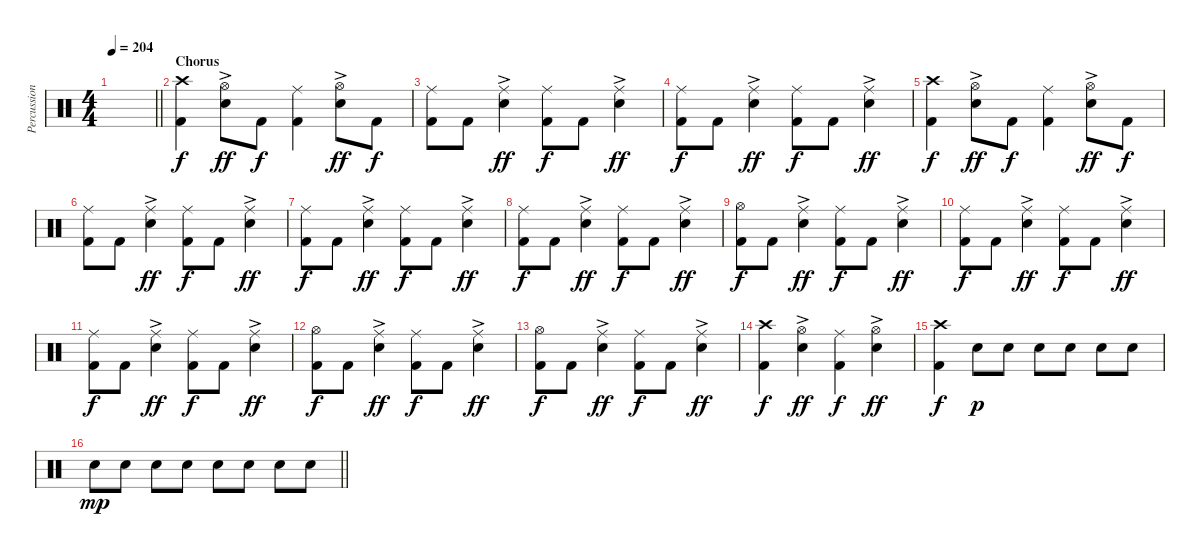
\track ("Percussion" "Percussion") {instrument percussion}
\staff {score}
\articulation defaults
\ts (4 4)
\tempo 204
\clef neutral
\barLineRight lightlight
\ks c
|
\section ("" "Chorus")
("Crash high (hit)" "Kick (hit) 2").4{dy f} ("Hi-Hat (open)" "Electric Snare (hit)"{ac}).8{dy ff} "Kick (hit) 2".8{dy f} ("Ride (middle)" "Kick (hit) 2").4 ("Hi-Hat (open)" "Electric Snare (hit)"{ac}).8{dy ff} "Kick (hit) 2".8{dy f} |
("Ride (middle)" "Kick (hit) 2").8 "Kick (hit) 2".8 ("Ride (middle)" "Electric Snare (hit)"{ac}).4{dy ff} ("Ride (middle)" "Kick (hit) 2").8{dy f} "Kick (hit) 2".8 ("Ride (middle)" "Electric Snare (hit)"{ac}).4{dy ff} |
("Ride (middle)" "Kick (hit) 2").8{dy f} "Kick (hit) 2".8 ("Ride (middle)" "Electric Snare (hit)"{ac}).4{dy ff} ("Ride (middle)" "Kick (hit) 2").8{dy f} "Kick (hit) 2".8 ("Ride (middle)" "Electric Snare (hit)"{ac}).4{dy ff} |
("Crash high (hit)" "Kick (hit) 2").4{dy f} ("Hi-Hat (open)" "Electric Snare (hit)"{ac}).8{dy ff} "Kick (hit) 2".8{dy f} ("Ride (middle)" "Kick (hit) 2").4 ("Hi-Hat (open)" "Electric Snare (hit)"{ac}).8{dy ff} "Kick (hit) 2".8{dy f} |
("Ride (middle)" "Kick (hit) 2").8 "Kick (hit) 2".8 ("Ride (middle)" "Electric Snare (hit)"{ac}).4{dy ff} ("Ride (middle)" "Kick (hit) 2").8{dy f} "Kick (hit) 2".8 ("Ride (middle)" "Electric Snare (hit)"{ac}).4{dy ff} |
("Ride (middle)" "Kick (hit) 2").8{dy f} "Kick (hit) 2".8 ("Ride (middle)" "Electric Snare (hit)"{ac}).4{dy ff} ("Ride (middle)" "Kick (hit) 2").8{dy f} "Kick (hit) 2".8 ("Ride (middle)" "Electric Snare (hit)"{ac}).4{dy ff} |
("Ride (middle)" "Kick (hit) 2").8{dy f} "Kick (hit) 2".8 ("Ride (middle)" "Electric Snare (hit)"{ac}).4{dy ff} ("Ride (middle)" "Kick (hit) 2").8{dy f} "Kick (hit) 2".8 ("Ride (middle)" "Electric Snare (hit)"{ac}).4{dy ff} |
("Hi-Hat (open)" "Kick (hit) 2").8{dy f} "Kick (hit) 2".8 ("Ride (middle)" "Electric Snare (hit)"{ac}).4{dy ff} ("Ride (middle)" "Kick (hit) 2").8{dy f} "Kick (hit) 2".8 ("Ride (middle)" "Electric Snare (hit)"{ac}).4{dy ff} |
("Ride (middle)" "Kick (hit) 2").8{dy f} "Kick (hit) 2".8 ("Ride (middle)" "Electric Snare (hit)"{ac}).4{dy ff} ("Ride (middle)" "Kick (hit) 2").8{dy f} "Kick (hit) 2".8 ("Ride (middle)" "Electric Snare (hit)"{ac}).4{dy ff} |
("Ride (middle)" "Kick (hit) 2").8{dy f} "Kick (hit) 2".8 ("Ride (middle)" "Electric Snare (hit)"{ac}).4{dy ff} ("Ride (middle)" "Kick (hit) 2").8{dy f} "Kick (hit) 2".8 ("Ride (middle)" "Electric Snare (hit)"{ac}).4{dy ff} |
("Hi-Hat (open)" "Kick (hit) 2").8{dy f} "Kick (hit) 2".8 ("Ride (middle)" "Electric Snare (hit)"{ac}).4{dy ff} ("Ride (middle)" "Kick (hit) 2").8{dy f} "Kick (hit) 2".8 ("Ride (middle)" "Electric Snare (hit)"{ac}).4{dy ff} |
("Hi-Hat (open)" "Kick (hit) 2").8{dy f} "Kick (hit) 2".8 ("Ride (middle)" "Electric Snare (hit)"{ac}).4{dy ff} ("Ride (middle)" "Kick (hit) 2").8{dy f} "Kick (hit) 2".8 ("Ride (middle)" "Electric Snare (hit)"{ac}).4{dy ff} |
("Crash high (hit)" "Kick (hit) 2").4{dy f} ("Hi-Hat (open)" "Electric Snare (hit)"{ac}).4{dy ff} ("Ride (middle)" "Kick (hit) 2").4{dy f} ("Hi-Hat (open)" "Electric Snare (hit)"{ac}).4{dy ff} |
("Crash high (hit)" "Kick (hit) 2").4{dy f} "Electric Snare (hit)".8{dy p} "Electric Snare (hit)".8 "Electric Snare (hit)".8 "Electric Snare (hit)".8 "Electric Snare (hit)".8 "Electric Snare (hit)".8 |
\barLineRight lightlight "Electric Snare (hit)".8{dy mp} "Electric Snare (hit)".8 "Electric Snare (hit)".8 "Electric Snare (hit)".8 "Electric Snare (hit)".8 "Electric Snare (hit)".8 "Electric Snare (hit)".8 "Electric Snare (hit)".8
